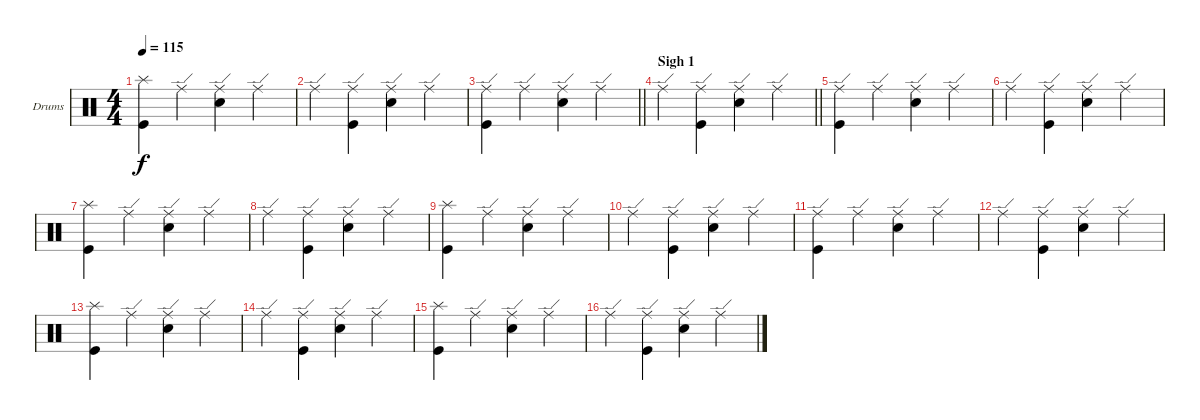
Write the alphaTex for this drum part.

\bracketExtendMode groupsimilarinstruments
\firstSystemTrackNameOrientation horizontal
\otherSystemsTrackNameOrientation horizontal
\track ("Drumkit" "Drums") {instrument percussion}
\staff {score}
\articulation defaults
\ts (4 4)
\tempo 115
\clef neutral
\ks c
("Splash (hit)" "Kick (hit)").4{dy f} "Ride (edge)".4 ("Ride (edge)" "Snare (hit) 2").4 "Ride (edge)".4 |
"Ride (edge)".4 ("Ride (edge)" "Kick (hit)").4 ("Ride (edge)" "Snare (hit) 2").4 "Ride (edge)".4 |
\barLineRight lightlight
("Ride (edge)" "Kick (hit)").4 "Ride (edge)".4 ("Ride (edge)" "Snare (hit) 2").4 "Ride (edge)".4 |
\section ("" "Sigh 1")
\barLineRight lightlight "Ride (edge)".4
("Ride (edge)" "Kick (hit)").4 ("Ride (edge)" "Snare (hit) 2").4 "Ride (edge)".4 |
("Ride (edge)" "Kick (hit)").4 "Ride (edge)".4 ("Ride (edge)" "Snare (hit) 2").4 "Ride (edge)".4 |
"Ride (edge)".4 ("Ride (edge)" "Kick (hit)").4 ("Ride (edge)" "Snare (hit) 2").4 "Ride (edge)".4 |
("Splash (hit)" "Kick (hit)").4 "Ride (edge)".4 ("Ride (edge)" "Snare (hit) 2").4 "Ride (edge)".4 |
"Ride (edge)".4 ("Ride (edge)" "Kick (hit)").4 ("Ride (edge)" "Snare (hit) 2").4 "Ride (edge)".4 |
("Splash (hit)" "Kick (hit)").4 "Ride (edge)".4 ("Ride (edge)" "Snare (hit) 2").4 "Ride (edge)".4 |
"Ride (edge)".4 ("Ride (edge)" "Kick (hit)").4 ("Ride (edge)" "Snare (hit) 2").4 "Ride (edge)".4 |
("Ride (edge)" "Kick (hit)").4 "Ride (edge)".4 ("Ride (edge)" "Snare (hit) 2").4 "Ride (edge)".4 |
"Ride (edge)".4 ("Ride (edge)" "Kick (hit)").4 ("Ride (edge)" "Snare (hit) 2").4 "Ride (edge)".4 |
("Splash (hit)" "Kick (hit)").4 "Ride (edge)".4 ("Ride (edge)" "Snare (hit) 2").4 "Ride (edge)".4 |
"Ride (edge)".4 ("Ride (edge)" "Kick (hit)").4 ("Ride (edge)" "Snare (hit) 2").4 "Ride (edge)".4 |
("Splash (hit)" "Kick (hit)").4 "Ride (edge)".4 ("Ride (edge)" "Snare (hit) 2").4 "Ride (edge)".4 |
"Ride (edge)".4 ("Ride (edge)" "Kick (hit)").4 ("Ride (edge)" "Snare (hit) 2").4 "Ride (edge)".4
